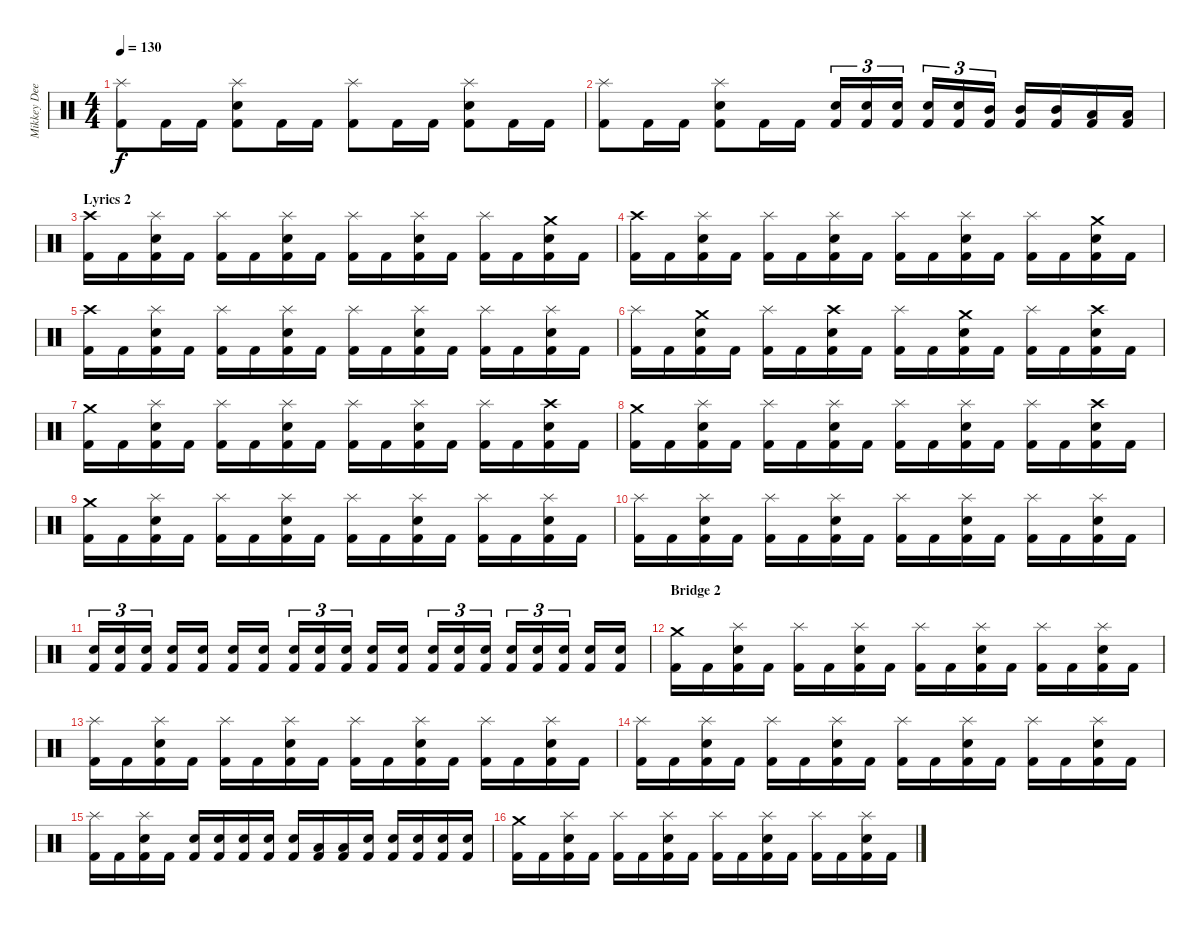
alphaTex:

\track ("Mikkey Dee" "Mikkey Dee") {instrument percussion}
\staff {score}
\articulation defaults
\ts (4 4)
\tempo 130
\clef neutral
\ks c
("Splash (hit)" "Kick (hit) 2").8{dy f} "Kick (hit) 2".16 "Kick (hit) 2".16 ("Splash (hit)" "Snare (hit) 2" "Kick (hit) 2").8 "Kick (hit) 2".16 "Kick (hit) 2".16 ("Splash (hit)" "Kick (hit) 2").8 "Kick (hit) 2".16 "Kick (hit) 2".16 ("Splash (hit)" "Snare (hit) 2" "Kick (hit) 2").8 "Kick (hit) 2".16 "Kick (hit) 2".16 |
("Splash (hit)" "Kick (hit) 2").8 "Kick (hit) 2".16 "Kick (hit) 2".16 ("Splash (hit)" "Snare (hit) 2" "Kick (hit) 2").8 "Kick (hit) 2".16 "Kick (hit) 2".16 ("Snare (hit) 2" "Kick (hit) 2").16{tu (3 2)} ("Snare (hit) 2" "Kick (hit) 2").16{tu (3 2)} ("Snare (hit) 2" "Kick (hit) 2").16{tu (3 2)} ("Snare (hit) 2" "Kick (hit) 2").16{tu (3 2)} ("Snare (hit) 2" "Kick (hit) 2").16{tu (3 2)} ("Mid Tom (hit)" "Kick (hit) 2").16{tu (3 2)} ("Mid Tom (hit)" "Kick (hit) 2").16 ("Mid Tom (hit)" "Kick (hit) 2").16 ("Low Tom (hit)" "Kick (hit) 2").16 ("Low Tom (hit)" "Kick (hit) 2").16 |
\section ("" "Lyrics 2")
("Crash high (hit)" "Kick (hit) 2").16 "Kick (hit) 2".16 ("Splash (hit)" "Snare (hit) 2" "Kick (hit) 2").16 "Kick (hit) 2".16 ("Splash (hit)" "Kick (hit) 2").16 "Kick (hit) 2".16 ("Splash (hit)" "Snare (hit) 2" "Kick (hit) 2").16 "Kick (hit) 2".16 ("Splash (hit)" "Kick (hit) 2").16 "Kick (hit) 2".16 ("Splash (hit)" "Snare (hit) 2" "Kick (hit) 2").16 "Kick (hit) 2".16 ("Splash (hit)" "Kick (hit) 2").16 "Kick (hit) 2".16 ("Crash medium (hit)" "Snare (hit) 2" "Kick (hit) 2").16 "Kick (hit) 2".16 |
("Crash high (hit)" "Kick (hit) 2").16 "Kick (hit) 2".16 ("Splash (hit)" "Snare (hit) 2" "Kick (hit) 2").16 "Kick (hit) 2".16 ("Splash (hit)" "Kick (hit) 2").16 "Kick (hit) 2".16 ("Splash (hit)" "Snare (hit) 2" "Kick (hit) 2").16 "Kick (hit) 2".16 ("Splash (hit)" "Kick (hit) 2").16 "Kick (hit) 2".16 ("Splash (hit)" "Snare (hit) 2" "Kick (hit) 2").16 "Kick (hit) 2".16 ("Splash (hit)" "Kick (hit) 2").16 "Kick (hit) 2".16 ("Crash medium (hit)" "Snare (hit) 2" "Kick (hit) 2").16 "Kick (hit) 2".16 |
("Crash high (hit)" "Kick (hit) 2").16 "Kick (hit) 2".16 ("Splash (hit)" "Snare (hit) 2" "Kick (hit) 2").16 "Kick (hit) 2".16 ("Splash (hit)" "Kick (hit) 2").16 "Kick (hit) 2".16 ("Splash (hit)" "Snare (hit) 2" "Kick (hit) 2").16 "Kick (hit) 2".16 ("Splash (hit)" "Kick (hit) 2").16 "Kick (hit) 2".16 ("Splash (hit)" "Snare (hit) 2" "Kick (hit) 2").16 "Kick (hit) 2".16 ("Splash (hit)" "Kick (hit) 2").16 "Kick (hit) 2".16 ("Splash (hit)" "Snare (hit) 2" "Kick (hit) 2").16 "Kick (hit) 2".16 |
("Splash (hit)" "Kick (hit) 2").16 "Kick (hit) 2".16 ("Crash medium (hit)" "Snare (hit) 2" "Kick (hit) 2").16 "Kick (hit) 2".16 ("Splash (hit)" "Kick (hit) 2").16 "Kick (hit) 2".16 ("Crash high (hit)" "Snare (hit) 2" "Kick (hit) 2").16 "Kick (hit) 2".16 ("Splash (hit)" "Kick (hit) 2").16 "Kick (hit) 2".16 ("Crash medium (hit)" "Snare (hit) 2" "Kick (hit) 2").16 "Kick (hit) 2".16 ("Splash (hit)" "Kick (hit) 2").16 "Kick (hit) 2".16 ("Crash high (hit)" "Snare (hit) 2" "Kick (hit) 2").16 "Kick (hit) 2".16 |
("Crash medium (hit)" "Kick (hit) 2").16 "Kick (hit) 2".16 ("Splash (hit)" "Snare (hit) 2" "Kick (hit) 2").16 "Kick (hit) 2".16 ("Splash (hit)" "Kick (hit) 2").16 "Kick (hit) 2".16 ("Splash (hit)" "Snare (hit) 2" "Kick (hit) 2").16 "Kick (hit) 2".16 ("Splash (hit)" "Kick (hit) 2").16 "Kick (hit) 2".16 ("Splash (hit)" "Snare (hit) 2" "Kick (hit) 2").16 "Kick (hit) 2".16 ("Splash (hit)" "Kick (hit) 2").16 "Kick (hit) 2".16 ("Crash high (hit)" "Snare (hit) 2" "Kick (hit) 2").16 "Kick (hit) 2".16 |
("Crash medium (hit)" "Kick (hit) 2").16 "Kick (hit) 2".16 ("Splash (hit)" "Snare (hit) 2" "Kick (hit) 2").16 "Kick (hit) 2".16 ("Splash (hit)" "Kick (hit) 2").16 "Kick (hit) 2".16 ("Splash (hit)" "Snare (hit) 2" "Kick (hit) 2").16 "Kick (hit) 2".16 ("Splash (hit)" "Kick (hit) 2").16 "Kick (hit) 2".16 ("Splash (hit)" "Snare (hit) 2" "Kick (hit) 2").16 "Kick (hit) 2".16 ("Splash (hit)" "Kick (hit) 2").16 "Kick (hit) 2".16 ("Crash high (hit)" "Snare (hit) 2" "Kick (hit) 2").16 "Kick (hit) 2".16 |
("Crash medium (hit)" "Kick (hit) 2").16 "Kick (hit) 2".16 ("Splash (hit)" "Snare (hit) 2" "Kick (hit) 2").16 "Kick (hit) 2".16 ("Splash (hit)" "Kick (hit) 2").16 "Kick (hit) 2".16 ("Splash (hit)" "Snare (hit) 2" "Kick (hit) 2").16 "Kick (hit) 2".16 ("Splash (hit)" "Kick (hit) 2").16 "Kick (hit) 2".16 ("Splash (hit)" "Snare (hit) 2" "Kick (hit) 2").16 "Kick (hit) 2".16 ("Splash (hit)" "Kick (hit) 2").16 "Kick (hit) 2".16 ("Splash (hit)" "Snare (hit) 2" "Kick (hit) 2").16 "Kick (hit) 2".16 |
("Splash (hit)" "Kick (hit) 2").16 "Kick (hit) 2".16 ("Splash (hit)" "Snare (hit) 2" "Kick (hit) 2").16 "Kick (hit) 2".16 ("Splash (hit)" "Kick (hit) 2").16 "Kick (hit) 2".16 ("Splash (hit)" "Snare (hit) 2" "Kick (hit) 2").16 "Kick (hit) 2".16 ("Splash (hit)" "Kick (hit) 2").16 "Kick (hit) 2".16 ("Splash (hit)" "Snare (hit) 2" "Kick (hit) 2").16 "Kick (hit) 2".16 ("Splash (hit)" "Kick (hit) 2").16 "Kick (hit) 2".16 ("Splash (hit)" "Snare (hit) 2" "Kick (hit) 2").16 "Kick (hit) 2".16 |
("Snare (hit) 2" "Kick (hit) 2").16{tu (3 2)} ("Snare (hit) 2" "Kick (hit) 2").16{tu (3 2)} ("Snare (hit) 2" "Kick (hit) 2").16{tu (3 2)} ("Snare (hit) 2" "Kick (hit) 2").16 ("Snare (hit) 2" "Kick (hit) 2").16 ("Snare (hit) 2" "Kick (hit) 2").16 ("Snare (hit) 2" "Kick (hit) 2").16 ("Snare (hit) 2" "Kick (hit) 2").16{tu (3 2)} ("Snare (hit) 2" "Kick (hit) 2").16{tu (3 2)} ("Snare (hit) 2" "Kick (hit) 2").16{tu (3 2)} ("Snare (hit) 2" "Kick (hit) 2").16 ("Snare (hit) 2" "Kick (hit) 2").16 ("Snare (hit) 2" "Kick (hit) 2").16{tu (3 2)} ("Snare (hit) 2" "Kick (hit) 2").16{tu (3 2)} ("Snare (hit) 2" "Kick (hit) 2").16{tu (3 2)} ("Snare (hit) 2" "Kick (hit) 2").16{tu (3 2)} ("Snare (hit) 2" "Kick (hit) 2").16{tu (3 2)} ("Snare (hit) 2" "Kick (hit) 2").16{tu (3 2)} ("Snare (hit) 2" "Kick (hit) 2").16 ("Snare (hit) 2" "Kick (hit) 2").16 |
\section ("" "Bridge 2")
("Crash medium (hit)" "Kick (hit) 2").16 "Kick (hit) 2".16 ("Splash (hit)" "Snare (hit) 2" "Kick (hit) 2").16 "Kick (hit) 2".16 ("Splash (hit)" "Kick (hit) 2").16 "Kick (hit) 2".16 ("Splash (hit)" "Snare (hit) 2" "Kick (hit) 2").16 "Kick (hit) 2".16 ("Splash (hit)" "Kick (hit) 2").16 "Kick (hit) 2".16 ("Splash (hit)" "Snare (hit) 2" "Kick (hit) 2").16 "Kick (hit) 2".16 ("Splash (hit)" "Kick (hit) 2").16 "Kick (hit) 2".16 ("Splash (hit)" "Snare (hit) 2" "Kick (hit) 2").16 "Kick (hit) 2".16 |
("Splash (hit)" "Kick (hit) 2").16 "Kick (hit) 2".16 ("Splash (hit)" "Snare (hit) 2" "Kick (hit) 2").16 "Kick (hit) 2".16 ("Splash (hit)" "Kick (hit) 2").16 "Kick (hit) 2".16 ("Splash (hit)" "Snare (hit) 2" "Kick (hit) 2").16 "Kick (hit) 2".16 ("Splash (hit)" "Kick (hit) 2").16 "Kick (hit) 2".16 ("Splash (hit)" "Snare (hit) 2" "Kick (hit) 2").16 "Kick (hit) 2".16 ("Splash (hit)" "Kick (hit) 2").16 "Kick (hit) 2".16 ("Splash (hit)" "Snare (hit) 2" "Kick (hit) 2").16 "Kick (hit) 2".16 |
("Splash (hit)" "Kick (hit) 2").16 "Kick (hit) 2".16 ("Splash (hit)" "Snare (hit) 2" "Kick (hit) 2").16 "Kick (hit) 2".16 ("Splash (hit)" "Kick (hit) 2").16 "Kick (hit) 2".16 ("Splash (hit)" "Snare (hit) 2" "Kick (hit) 2").16 "Kick (hit) 2".16 ("Splash (hit)" "Kick (hit) 2").16 "Kick (hit) 2".16 ("Splash (hit)" "Snare (hit) 2" "Kick (hit) 2").16 "Kick (hit) 2".16 ("Splash (hit)" "Kick (hit) 2").16 "Kick (hit) 2".16 ("Splash (hit)" "Snare (hit) 2" "Kick (hit) 2").16 "Kick (hit) 2".16 |
("Splash (hit)" "Kick (hit) 2").16 "Kick (hit) 2".16 ("Splash (hit)" "Snare (hit) 2" "Kick (hit) 2").16 "Kick (hit) 2".16 ("Snare (hit) 2" "Kick (hit) 2").16 ("Snare (hit) 2" "Kick (hit) 2").16 ("Snare (hit) 2" "Kick (hit) 2").16 ("Snare (hit) 2" "Kick (hit) 2").16 ("Snare (hit) 2" "Kick (hit) 2").16 ("Low Tom (hit)" "Kick (hit) 2").16 ("Low Tom (hit)" "Kick (hit) 2").16 ("Snare (hit) 2" "Kick (hit) 2").16 ("Snare (hit) 2" "Kick (hit) 2").16 ("Snare (hit) 2" "Kick (hit) 2").16 ("Snare (hit) 2" "Kick (hit) 2").16 ("Snare (hit) 2" "Kick (hit) 2").16 |
("Crash medium (hit)" "Kick (hit) 2").16 "Kick (hit) 2".16 ("Splash (hit)" "Snare (hit) 2" "Kick (hit) 2").16 "Kick (hit) 2".16 ("Splash (hit)" "Kick (hit) 2").16 "Kick (hit) 2".16 ("Splash (hit)" "Snare (hit) 2" "Kick (hit) 2").16 "Kick (hit) 2".16 ("Splash (hit)" "Kick (hit) 2").16 "Kick (hit) 2".16 ("Splash (hit)" "Snare (hit) 2" "Kick (hit) 2").16 "Kick (hit) 2".16 ("Splash (hit)" "Kick (hit) 2").16 "Kick (hit) 2".16 ("Splash (hit)" "Snare (hit) 2" "Kick (hit) 2").16 "Kick (hit) 2".16
